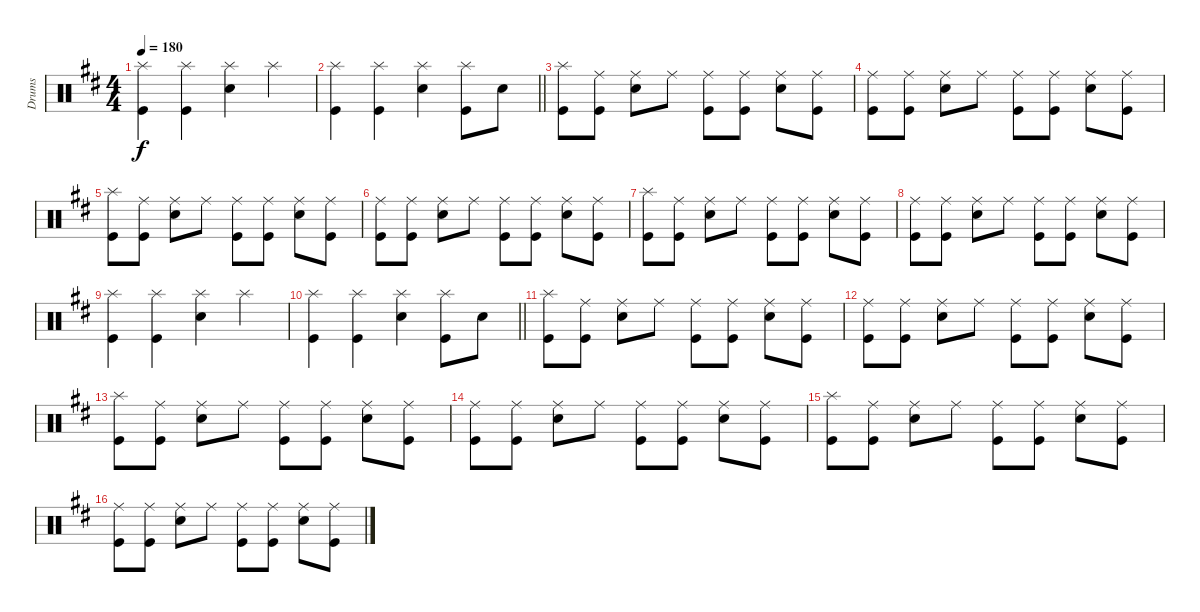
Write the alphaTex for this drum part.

\track ("Drums" "Drums") {instrument percussion}
\staff {score}
\articulation defaults
\ts (4 4)
\tempo 180
\clef neutral
\ks d
("Kick (hit)" "Splash (hit)").4{dy f} ("Kick (hit)" "Splash (hit)").4 ("Snare (hit) 2" "Splash (hit)").4 "Splash (hit)".4 |
\barLineRight lightlight
("Kick (hit)" "Splash (hit)").4 ("Kick (hit)" "Splash (hit)").4 ("Snare (hit) 2" "Splash (hit)").4 ("Kick (hit)" "Splash (hit)").8 "Snare (hit) 2".8 |
("Kick (hit)" "Splash (hit)").8 ("Kick (hit)" "Ride (middle)").8 ("Snare (hit) 2" "Ride (middle)").8 "Ride (middle)".8 ("Kick (hit)" "Ride (middle)").8 ("Kick (hit)" "Ride (middle)").8 ("Snare (hit) 2" "Ride (middle)").8 ("Kick (hit)" "Ride (middle)").8 |
("Kick (hit)" "Ride (middle)").8 ("Kick (hit)" "Ride (middle)").8 ("Snare (hit) 2" "Ride (middle)").8 "Ride (middle)".8 ("Kick (hit)" "Ride (middle)").8 ("Kick (hit)" "Ride (middle)").8 ("Snare (hit) 2" "Ride (middle)").8 ("Kick (hit)" "Ride (middle)").8 |
("Kick (hit)" "Splash (hit)").8 ("Kick (hit)" "Ride (middle)").8 ("Snare (hit) 2" "Ride (middle)").8 "Ride (middle)".8 ("Kick (hit)" "Ride (middle)").8 ("Kick (hit)" "Ride (middle)").8 ("Snare (hit) 2" "Ride (middle)").8 ("Kick (hit)" "Ride (middle)").8 |
("Kick (hit)" "Ride (middle)").8 ("Kick (hit)" "Ride (middle)").8 ("Snare (hit) 2" "Ride (middle)").8 "Ride (middle)".8 ("Kick (hit)" "Ride (middle)").8 ("Kick (hit)" "Ride (middle)").8 ("Snare (hit) 2" "Ride (middle)").8 ("Kick (hit)" "Ride (middle)").8 |
("Kick (hit)" "Splash (hit)").8 ("Kick (hit)" "Ride (middle)").8 ("Snare (hit) 2" "Ride (middle)").8 "Ride (middle)".8 ("Kick (hit)" "Ride (middle)").8 ("Kick (hit)" "Ride (middle)").8 ("Snare (hit) 2" "Ride (middle)").8 ("Kick (hit)" "Ride (middle)").8 |
("Kick (hit)" "Ride (middle)").8 ("Kick (hit)" "Ride (middle)").8 ("Snare (hit) 2" "Ride (middle)").8 "Ride (middle)".8 ("Kick (hit)" "Ride (middle)").8 ("Kick (hit)" "Ride (middle)").8 ("Snare (hit) 2" "Ride (middle)").8 ("Kick (hit)" "Ride (middle)").8 |
("Kick (hit)" "Splash (hit)").4 ("Kick (hit)" "Splash (hit)").4 ("Snare (hit) 2" "Splash (hit)").4 "Splash (hit)".4 |
\barLineRight lightlight
("Kick (hit)" "Splash (hit)").4 ("Kick (hit)" "Splash (hit)").4 ("Snare (hit) 2" "Splash (hit)").4 ("Kick (hit)" "Splash (hit)").8 "Snare (hit) 2".8 |
("Kick (hit)" "Splash (hit)").8 ("Kick (hit)" "Ride (middle)").8 ("Snare (hit) 2" "Ride (middle)").8 "Ride (middle)".8 ("Kick (hit)" "Ride (middle)").8 ("Kick (hit)" "Ride (middle)").8 ("Snare (hit) 2" "Ride (middle)").8 ("Kick (hit)" "Ride (middle)").8 |
("Kick (hit)" "Ride (middle)").8 ("Kick (hit)" "Ride (middle)").8 ("Snare (hit) 2" "Ride (middle)").8 "Ride (middle)".8 ("Kick (hit)" "Ride (middle)").8 ("Kick (hit)" "Ride (middle)").8 ("Snare (hit) 2" "Ride (middle)").8 ("Kick (hit)" "Ride (middle)").8 |
("Kick (hit)" "Splash (hit)").8 ("Kick (hit)" "Ride (middle)").8 ("Snare (hit) 2" "Ride (middle)").8 "Ride (middle)".8 ("Kick (hit)" "Ride (middle)").8 ("Kick (hit)" "Ride (middle)").8 ("Snare (hit) 2" "Ride (middle)").8 ("Kick (hit)" "Ride (middle)").8 |
("Kick (hit)" "Ride (middle)").8 ("Kick (hit)" "Ride (middle)").8 ("Snare (hit) 2" "Ride (middle)").8 "Ride (middle)".8 ("Kick (hit)" "Ride (middle)").8 ("Kick (hit)" "Ride (middle)").8 ("Snare (hit) 2" "Ride (middle)").8 ("Kick (hit)" "Ride (middle)").8 |
("Kick (hit)" "Splash (hit)").8 ("Kick (hit)" "Ride (middle)").8 ("Snare (hit) 2" "Ride (middle)").8 "Ride (middle)".8 ("Kick (hit)" "Ride (middle)").8 ("Kick (hit)" "Ride (middle)").8 ("Snare (hit) 2" "Ride (middle)").8 ("Kick (hit)" "Ride (middle)").8 |
("Kick (hit)" "Ride (middle)").8 ("Kick (hit)" "Ride (middle)").8 ("Snare (hit) 2" "Ride (middle)").8 "Ride (middle)".8 ("Kick (hit)" "Ride (middle)").8 ("Kick (hit)" "Ride (middle)").8 ("Snare (hit) 2" "Ride (middle)").8 ("Kick (hit)" "Ride (middle)").8
